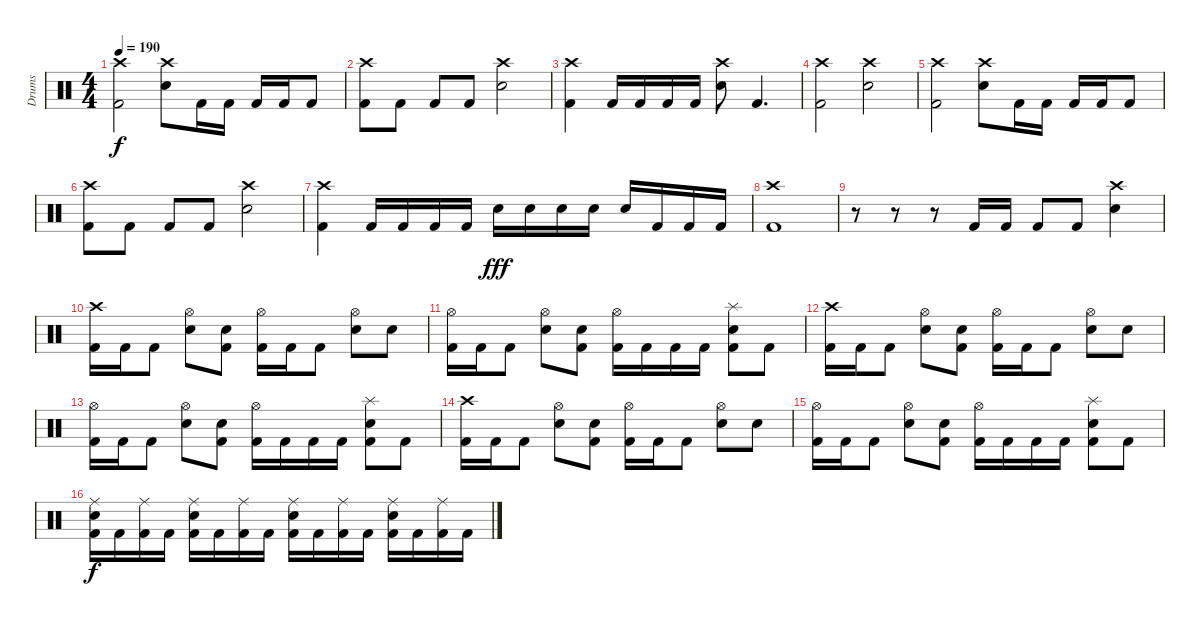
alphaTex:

\track ("Drums" "Drums") {instrument percussion}
\staff {score}
\articulation defaults
\ts (4 4)
\tempo 190
\clef neutral
\ks c
("Crash high (hit)" "Kick (hit) 2").2{dy f} ("Crash high (hit)" "Electric Snare (hit)").8 "Kick (hit) 2".16 "Kick (hit) 2".16 "Kick (hit) 2".16 "Kick (hit) 2".16 "Kick (hit) 2".8 |
("Crash high (hit)" "Kick (hit) 2").8 "Kick (hit) 2".8 "Kick (hit) 2".8 "Kick (hit) 2".8 ("Crash high (hit)" "Electric Snare (hit)").2 |
("Crash high (hit)" "Kick (hit) 2").4 "Kick (hit) 2".16 "Kick (hit) 2".16 "Kick (hit) 2".16 "Kick (hit) 2".16 ("Crash high (hit)" "Electric Snare (hit)").8 "Kick (hit) 2".4{d} |
("Crash high (hit)" "Kick (hit) 2").2 ("Crash high (hit)" "Electric Snare (hit)").2 |
("Crash high (hit)" "Kick (hit) 2").2 ("Crash high (hit)" "Electric Snare (hit)").8 "Kick (hit) 2".16 "Kick (hit) 2".16 "Kick (hit) 2".16 "Kick (hit) 2".16 "Kick (hit) 2".8 |
("Crash high (hit)" "Kick (hit) 2").8 "Kick (hit) 2".8 "Kick (hit) 2".8 "Kick (hit) 2".8 ("Crash high (hit)" "Electric Snare (hit)").2 |
("Crash high (hit)" "Kick (hit) 2").4 "Kick (hit) 2".16 "Kick (hit) 2".16 "Kick (hit) 2".16 "Kick (hit) 2".16 "Snare (hit) 2".16{dy fff} "Snare (hit) 2".16 "Snare (hit) 2".16 "Snare (hit) 2".16 "Snare (hit) 2".16 "Kick (hit) 2".16 "Kick (hit) 2".16 "Kick (hit) 2".16 |
("Crash high (hit)" "Kick (hit) 2").1 |
r.8 r.8 r.8 "Kick (hit) 2".16 "Kick (hit) 2".16 "Kick (hit) 2".8 "Kick (hit) 2".8 ("Crash high (hit)" "Electric Snare (hit)").4 |
("Crash high (hit)" "Kick (hit) 2").16 "Kick (hit) 2".16 "Kick (hit) 2".8 ("Hi-Hat (open)" "Electric Snare (hit)").8 ("Electric Snare (hit)" "Kick (hit) 2").8 ("Hi-Hat (open)" "Kick (hit) 2").16 "Kick (hit) 2".16 "Kick (hit) 2".8 ("Hi-Hat (open)" "Electric Snare (hit)").8 "Electric Snare (hit)".8 |
("Hi-Hat (open)" "Kick (hit) 2").16 "Kick (hit) 2".16 "Kick (hit) 2".8 ("Hi-Hat (open)" "Electric Snare (hit)").8 ("Electric Snare (hit)" "Kick (hit) 2").8 ("Hi-Hat (open)" "Kick (hit) 2").16 "Kick (hit) 2".16 "Kick (hit) 2".16 "Kick (hit) 2".16 ("Splash (hit)" "Electric Snare (hit)" "Kick (hit) 2").8 "Kick (hit) 2".8 |
("Crash high (hit)" "Kick (hit) 2").16 "Kick (hit) 2".16 "Kick (hit) 2".8 ("Hi-Hat (open)" "Electric Snare (hit)").8 ("Electric Snare (hit)" "Kick (hit) 2").8 ("Hi-Hat (open)" "Kick (hit) 2").16 "Kick (hit) 2".16 "Kick (hit) 2".8 ("Hi-Hat (open)" "Electric Snare (hit)").8 "Electric Snare (hit)".8 |
("Hi-Hat (open)" "Kick (hit) 2").16 "Kick (hit) 2".16 "Kick (hit) 2".8 ("Hi-Hat (open)" "Electric Snare (hit)").8 ("Electric Snare (hit)" "Kick (hit) 2").8 ("Hi-Hat (open)" "Kick (hit) 2").16 "Kick (hit) 2".16 "Kick (hit) 2".16 "Kick (hit) 2".16 ("Splash (hit)" "Electric Snare (hit)" "Kick (hit) 2").8 "Kick (hit) 2".8 |
("Crash high (hit)" "Kick (hit) 2").16 "Kick (hit) 2".16 "Kick (hit) 2".8 ("Hi-Hat (open)" "Electric Snare (hit)").8 ("Electric Snare (hit)" "Kick (hit) 2").8 ("Hi-Hat (open)" "Kick (hit) 2").16 "Kick (hit) 2".16 "Kick (hit) 2".8 ("Hi-Hat (open)" "Electric Snare (hit)").8 "Electric Snare (hit)".8 |
("Hi-Hat (open)" "Kick (hit) 2").16 "Kick (hit) 2".16 "Kick (hit) 2".8 ("Hi-Hat (open)" "Electric Snare (hit)").8 ("Electric Snare (hit)" "Kick (hit) 2").8 ("Hi-Hat (open)" "Kick (hit) 2").16 "Kick (hit) 2".16 "Kick (hit) 2".16 "Kick (hit) 2".16 ("Splash (hit)" "Electric Snare (hit)" "Kick (hit) 2").8 "Kick (hit) 2".8 |
("Ride (middle)" "Electric Snare (hit)" "Kick (hit) 2").16{dy f} "Kick (hit) 2".16 ("Ride (middle)" "Kick (hit) 2").16 "Kick (hit) 2".16 ("Ride (middle)" "Electric Snare (hit)" "Kick (hit) 2").16 "Kick (hit) 2".16 ("Ride (middle)" "Kick (hit) 2").16 "Kick (hit) 2".16 ("Ride (middle)" "Electric Snare (hit)" "Kick (hit) 2").16 "Kick (hit) 2".16 ("Ride (middle)" "Kick (hit) 2").16 "Kick (hit) 2".16 ("Ride (middle)" "Electric Snare (hit)" "Kick (hit) 2").16 "Kick (hit) 2".16 ("Ride (middle)" "Kick (hit) 2").16 "Kick (hit) 2".16
